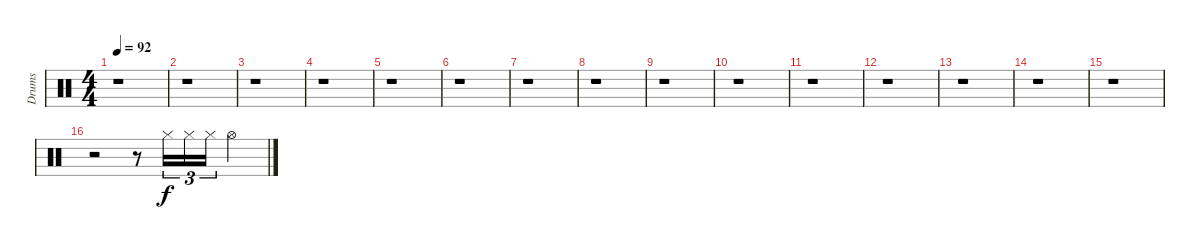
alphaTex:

\track ("Drums" "Drums") {instrument percussion}
\staff {score}
\articulation defaults
\ts (4 4)
\tempo 92
\clef neutral
\ks c
r.1{dy f} |
r.1 |
r.1 |
r.1 |
r.1 |
r.1 |
r.1 |
r.1 |
r.1 |
r.1 |
r.1 |
r.1 |
r.1 |
r.1 |
r.1 |
r.2 r.8 "Hi-Hat (closed)".16{tu (3 2)} "Hi-Hat (closed)".16{tu (3 2)} "Hi-Hat (closed)".16{tu (3 2)} "Hi-Hat (open)".4
